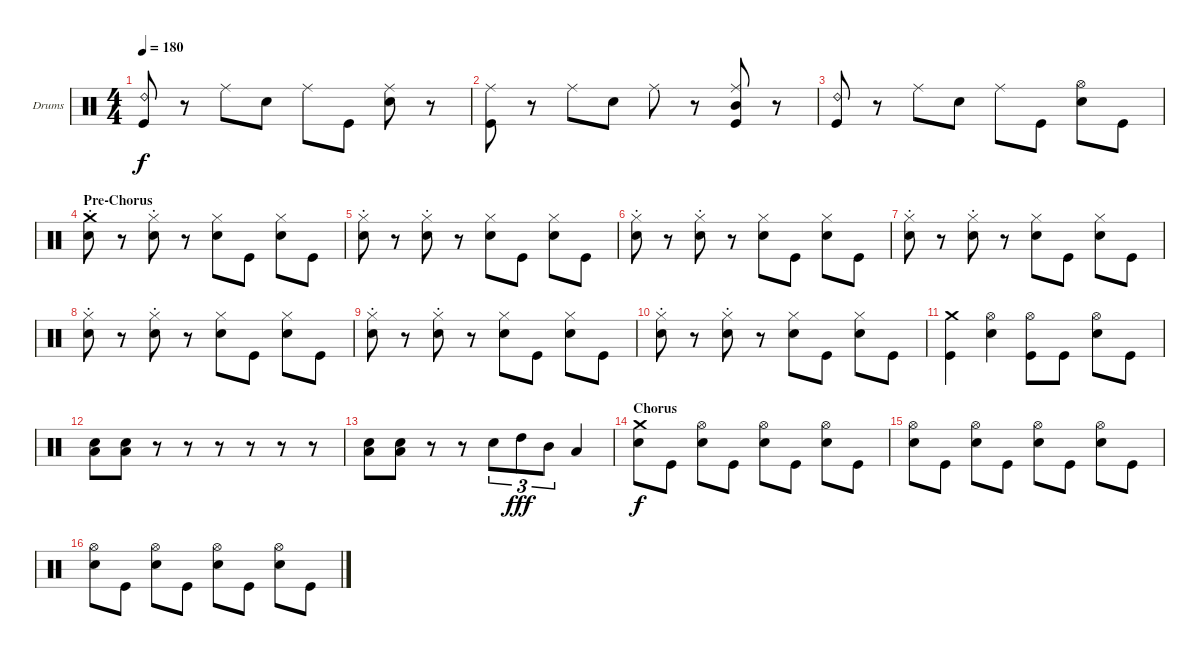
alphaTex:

\defaultSystemsLayout 4
\bracketExtendMode groupsimilarinstruments
\firstSystemTrackNameOrientation horizontal
\otherSystemsTrackNameOrientation horizontal
\track ("Drumkit" "Drums") {instrument percussion}
\staff {score}
\articulation defaults
\ts (4 4)
\tempo 180
\clef neutral
\ks c
("Kick (hit)" "Ride (bell) 2").8{dy f} r.8 "Ride (middle)".8 "Snare (hit) 2".8 "Ride (middle)".8 "Kick (hit)".8 ("Snare (hit) 2" "Ride (middle)").8 r.8 |
("Kick (hit)" "Ride (middle)").8 r.8 "Ride (middle)".8 "Snare (hit) 2".8 "Ride (middle)".8 r.8 ("Mid Tom (hit)" "Ride (middle)" "Kick (hit)").8 r.8 |
("Kick (hit)" "Ride (bell) 2").8 r.8 "Ride (middle)".8 "Snare (hit) 2".8 "Ride (middle)".8 "Kick (hit)".8 ("Snare (hit) 2" "Hi-Hat (open)").8 "Kick (hit)".8 |
\section ("" "Pre-Chorus")
("Crash medium (hit)" "Snare (hit) 2"{st}).8 r.8 ("Snare (hit) 2"{st} "Hi-Hat (closed)").8 r.8 ("Snare (hit) 2" "Hi-Hat (closed)").8 "Kick (hit)".8 ("Snare (hit) 2" "Hi-Hat (closed)").8 "Kick (hit)".8 |
("Snare (hit) 2"{st} "Hi-Hat (closed)").8 r.8 ("Snare (hit) 2"{st} "Hi-Hat (closed)").8 r.8 ("Snare (hit) 2" "Hi-Hat (closed)").8 "Kick (hit)".8 ("Snare (hit) 2" "Hi-Hat (closed)").8 "Kick (hit)".8 |
("Snare (hit) 2"{st} "Hi-Hat (closed)").8 r.8 ("Snare (hit) 2"{st} "Hi-Hat (closed)").8 r.8 ("Snare (hit) 2" "Hi-Hat (closed)").8 "Kick (hit)".8 ("Snare (hit) 2" "Hi-Hat (closed)").8 "Kick (hit)".8 |
("Snare (hit) 2"{st} "Hi-Hat (closed)").8 r.8 ("Snare (hit) 2"{st} "Hi-Hat (closed)").8 r.8 ("Snare (hit) 2" "Hi-Hat (closed)").8 "Kick (hit)".8 ("Snare (hit) 2" "Hi-Hat (closed)").8 "Kick (hit)".8 |
("Snare (hit) 2"{st} "Hi-Hat (closed)").8 r.8 ("Snare (hit) 2"{st} "Hi-Hat (closed)").8 r.8 ("Snare (hit) 2" "Hi-Hat (closed)").8 "Kick (hit)".8 ("Snare (hit) 2" "Hi-Hat (closed)").8 "Kick (hit)".8 |
("Snare (hit) 2"{st} "Hi-Hat (closed)").8 r.8 ("Snare (hit) 2"{st} "Hi-Hat (closed)").8 r.8 ("Snare (hit) 2" "Hi-Hat (closed)").8 "Kick (hit)".8 ("Snare (hit) 2" "Hi-Hat (closed)").8 "Kick (hit)".8 |
("Snare (hit) 2"{st} "Hi-Hat (closed)").8 r.8 ("Snare (hit) 2"{st} "Hi-Hat (closed)").8 r.8 ("Snare (hit) 2" "Hi-Hat (closed)").8 "Kick (hit)".8 ("Snare (hit) 2" "Hi-Hat (closed)").8 "Kick (hit)".8 |
("Kick (hit)" "Crash medium (hit)").4 ("Snare (hit) 2" "Hi-Hat (open)").4 ("Hi-Hat (open)" "Kick (hit)").8 "Kick (hit)".8 ("Snare (hit) 2" "Hi-Hat (open)").8 "Kick (hit)".8 |
("Snare (hit) 2" "Low Tom (hit)").8 ("Snare (hit) 2" "Low Tom (hit)").8 r.8 r.8 r.8 r.8 r.8 r.8 |
("Snare (hit) 2" "Low Tom (hit)").8 ("Snare (hit) 2" "Low Tom (hit)").8 r.8 r.8 "Snare (hit) 2".8{tu (3 2)} "High Tom (hit)".8{tu (3 2) dy fff} "Mid Tom (hit)".8{tu (3 2)} "Low Tom (hit)".4 |
\section ("" "Chorus")
("Crash medium (hit)" "Snare (hit) 2").8{dy f} "Kick (hit)".8 ("Hi-Hat (open)" "Snare (hit) 2").8 "Kick (hit)".8 ("Hi-Hat (open)" "Snare (hit) 2").8 "Kick (hit)".8 ("Hi-Hat (open)" "Snare (hit) 2").8 "Kick (hit)".8 |
("Snare (hit) 2" "Hi-Hat (open)").8 "Kick (hit)".8 ("Hi-Hat (open)" "Snare (hit) 2").8 "Kick (hit)".8 ("Hi-Hat (open)" "Snare (hit) 2").8 "Kick (hit)".8 ("Hi-Hat (open)" "Snare (hit) 2").8 "Kick (hit)".8 |
("Snare (hit) 2" "Hi-Hat (open)").8 "Kick (hit)".8 ("Hi-Hat (open)" "Snare (hit) 2").8 "Kick (hit)".8 ("Hi-Hat (open)" "Snare (hit) 2").8 "Kick (hit)".8 ("Hi-Hat (open)" "Snare (hit) 2").8 "Kick (hit)".8
